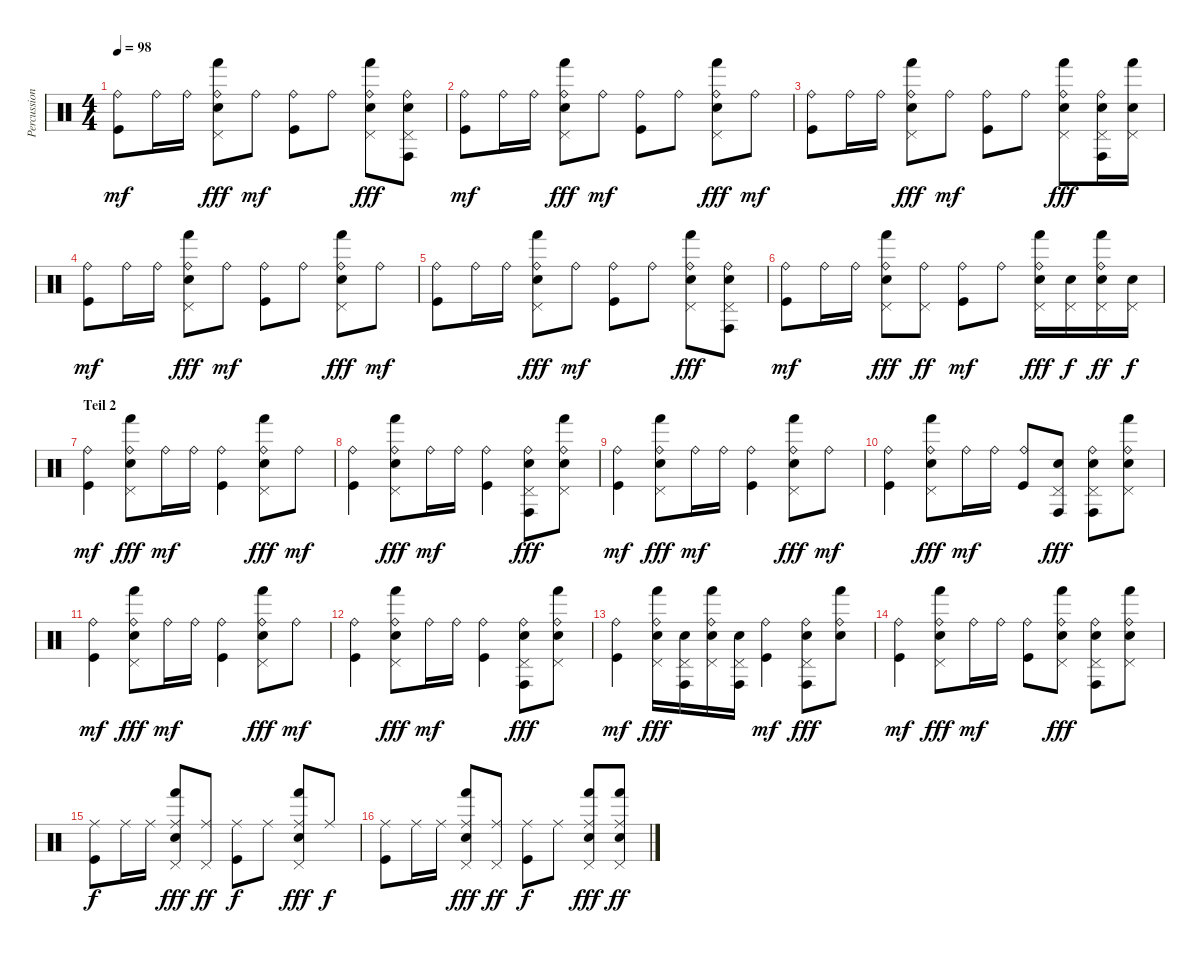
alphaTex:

\track ("Percussion" "Percussion") {instrument percussion}
\staff {score}
\articulation defaults
\ts (4 4)
\tempo 98
\clef neutral
\ks c
("Ride (bell)" "Kick (hit)").8{dy mf} "Ride (bell)".16 "Ride (bell)".16 ("Ride (bell)" "Pedal Hi-Hat (hit)" "Electric Snare (hit)" "Hand (hit)").8{dy fff} "Ride (bell)".8{dy mf} ("Ride (bell)" "Kick (hit)").8 "Ride (bell)".8 ("Ride (bell)" "Pedal Hi-Hat (hit)" "Electric Snare (hit)" "Hand (hit)").8{dy fff} ("Ride (bell)" "Pedal Hi-Hat (hit)" "Electric Snare (hit)" "Conga high (hit)").8 |
("Ride (bell)" "Kick (hit)").8{dy mf} "Ride (bell)".16 "Ride (bell)".16 ("Ride (bell)" "Pedal Hi-Hat (hit)" "Electric Snare (hit)" "Hand (hit)").8{dy fff} "Ride (bell)".8{dy mf} ("Ride (bell)" "Kick (hit)").8 "Ride (bell)".8 ("Ride (bell)" "Pedal Hi-Hat (hit)" "Electric Snare (hit)" "Hand (hit)").8{dy fff} "Ride (bell)".8{dy mf} |
("Ride (bell)" "Kick (hit)").8 "Ride (bell)".16 "Ride (bell)".16 ("Ride (bell)" "Pedal Hi-Hat (hit)" "Electric Snare (hit)" "Hand (hit)").8{dy fff} "Ride (bell)".8{dy mf} ("Ride (bell)" "Kick (hit)").8 "Ride (bell)".8 ("Ride (bell)" "Pedal Hi-Hat (hit)" "Electric Snare (hit)" "Hand (hit)").8{dy fff} ("Ride (bell)" "Pedal Hi-Hat (hit)" "Electric Snare (hit)" "Conga high (hit)").16 ("Pedal Hi-Hat (hit)" "Electric Snare (hit)" "Hand (hit)").16 |
("Ride (bell)" "Kick (hit)").8{dy mf} "Ride (bell)".16 "Ride (bell)".16 ("Ride (bell)" "Pedal Hi-Hat (hit)" "Electric Snare (hit)" "Hand (hit)").8{dy fff} "Ride (bell)".8{dy mf} ("Ride (bell)" "Kick (hit)").8 "Ride (bell)".8 ("Ride (bell)" "Pedal Hi-Hat (hit)" "Electric Snare (hit)" "Hand (hit)").8{dy fff} "Ride (bell)".8{dy mf} |
("Ride (bell)" "Kick (hit)").8 "Ride (bell)".16 "Ride (bell)".16 ("Ride (bell)" "Pedal Hi-Hat (hit)" "Electric Snare (hit)" "Hand (hit)").8{dy fff} "Ride (bell)".8{dy mf} ("Ride (bell)" "Kick (hit)").8 "Ride (bell)".8 ("Ride (bell)" "Pedal Hi-Hat (hit)" "Electric Snare (hit)" "Hand (hit)").8{dy fff} ("Ride (bell)" "Pedal Hi-Hat (hit)" "Electric Snare (hit)" "Conga high (hit)").8 |
("Ride (bell)" "Kick (hit)").8{dy mf} "Ride (bell)".16 "Ride (bell)".16 ("Ride (bell)" "Pedal Hi-Hat (hit)" "Electric Snare (hit)" "Hand (hit)").8{dy fff} ("Ride (bell)" "Pedal Hi-Hat (hit)").8{dy ff} ("Ride (bell)" "Kick (hit)").8{dy mf} "Ride (bell)".8 ("Ride (bell)" "Pedal Hi-Hat (hit)" "Electric Snare (hit)" "Hand (hit)").16{dy fff} ("Pedal Hi-Hat (hit)" "Electric Snare (hit)").16{dy f} ("Ride (bell)" "Pedal Hi-Hat (hit)" "Electric Snare (hit)" "Hand (hit)").16{dy ff} ("Pedal Hi-Hat (hit)" "Electric Snare (hit)").16{dy f} |
\section ("" "Teil 2")
("Ride (bell)" "Kick (hit)").4{dy mf} ("Ride (bell)" "Pedal Hi-Hat (hit)" "Electric Snare (hit)" "Hand (hit)").8{dy fff} "Ride (bell)".16{dy mf} "Ride (bell)".16 ("Ride (bell)" "Kick (hit)").4 ("Ride (bell)" "Pedal Hi-Hat (hit)" "Electric Snare (hit)" "Hand (hit)").8{dy fff} "Ride (bell)".8{dy mf} |
("Ride (bell)" "Kick (hit)").4 ("Ride (bell)" "Pedal Hi-Hat (hit)" "Electric Snare (hit)" "Hand (hit)").8{dy fff} "Ride (bell)".16{dy mf} "Ride (bell)".16 ("Ride (bell)" "Kick (hit)").4 ("Ride (bell)" "Pedal Hi-Hat (hit)" "Electric Snare (hit)" "Conga high (hit)").8{dy fff} ("Ride (bell)" "Pedal Hi-Hat (hit)" "Electric Snare (hit)" "Hand (hit)").8 |
("Ride (bell)" "Kick (hit)").4{dy mf} ("Ride (bell)" "Pedal Hi-Hat (hit)" "Electric Snare (hit)" "Hand (hit)").8{dy fff} "Ride (bell)".16{dy mf} "Ride (bell)".16 ("Ride (bell)" "Kick (hit)").4 ("Ride (bell)" "Pedal Hi-Hat (hit)" "Electric Snare (hit)" "Hand (hit)").8{dy fff} "Ride (bell)".8{dy mf} |
("Ride (bell)" "Kick (hit)").4 ("Ride (bell)" "Pedal Hi-Hat (hit)" "Electric Snare (hit)" "Hand (hit)").8{dy fff} "Ride (bell)".16{dy mf} "Ride (bell)".16 ("Ride (bell)" "Kick (hit)").8 ("Pedal Hi-Hat (hit)" "Electric Snare (hit)" "Conga high (hit)").8{dy fff} ("Ride (bell)" "Pedal Hi-Hat (hit)" "Electric Snare (hit)" "Conga high (hit)").8 ("Ride (bell)" "Pedal Hi-Hat (hit)" "Electric Snare (hit)" "Hand (hit)").8 |
("Ride (bell)" "Kick (hit)").4{dy mf} ("Ride (bell)" "Pedal Hi-Hat (hit)" "Electric Snare (hit)" "Hand (hit)").8{dy fff} "Ride (bell)".16{dy mf} "Ride (bell)".16 ("Ride (bell)" "Kick (hit)").4 ("Ride (bell)" "Pedal Hi-Hat (hit)" "Electric Snare (hit)" "Hand (hit)").8{dy fff} "Ride (bell)".8{dy mf} |
("Ride (bell)" "Kick (hit)").4 ("Ride (bell)" "Pedal Hi-Hat (hit)" "Electric Snare (hit)" "Hand (hit)").8{dy fff} "Ride (bell)".16{dy mf} "Ride (bell)".16 ("Ride (bell)" "Kick (hit)").4 ("Ride (bell)" "Pedal Hi-Hat (hit)" "Electric Snare (hit)" "Conga high (hit)").8{dy fff} ("Ride (bell)" "Pedal Hi-Hat (hit)" "Electric Snare (hit)" "Hand (hit)").8 |
("Ride (bell)" "Kick (hit)").4{dy mf} ("Ride (bell)" "Pedal Hi-Hat (hit)" "Electric Snare (hit)" "Hand (hit)").16{dy fff} ("Pedal Hi-Hat (hit)" "Electric Snare (hit)" "Conga high (hit)").16 ("Ride (bell)" "Pedal Hi-Hat (hit)" "Electric Snare (hit)" "Hand (hit)").16 ("Pedal Hi-Hat (hit)" "Electric Snare (hit)" "Conga high (hit)").16 ("Ride (bell)" "Kick (hit)").4{dy mf} ("Ride (bell)" "Pedal Hi-Hat (hit)" "Electric Snare (hit)" "Conga high (hit)").8{dy fff} ("Ride (bell)" "Electric Snare (hit)" "Hand (hit)").8 |
("Ride (bell)" "Kick (hit)").4{dy mf} ("Ride (bell)" "Pedal Hi-Hat (hit)" "Electric Snare (hit)" "Hand (hit)").8{dy fff} "Ride (bell)".16{dy mf} "Ride (bell)".16 ("Ride (bell)" "Kick (hit)").8 ("Ride (bell)" "Pedal Hi-Hat (hit)" "Electric Snare (hit)" "Hand (hit)").8{dy fff} ("Ride (bell)" "Pedal Hi-Hat (hit)" "Electric Snare (hit)" "Conga high (hit)").8 ("Ride (bell)" "Pedal Hi-Hat (hit)" "Electric Snare (hit)" "Hand (hit)").8 |
("Ride (middle)" "Kick (hit)").8{dy f} "Ride (middle)".16 "Ride (middle)".16 ("Ride (middle)" "Pedal Hi-Hat (hit)" "Electric Snare (hit)" "Hand (hit)").8{dy fff} ("Ride (middle)" "Pedal Hi-Hat (hit)").8{dy ff} ("Ride (middle)" "Kick (hit)").8{dy f} "Ride (middle)".8 ("Ride (middle)" "Pedal Hi-Hat (hit)" "Electric Snare (hit)" "Hand (hit)").8{dy fff} "Ride (middle)".8{dy f} |
("Ride (middle)" "Kick (hit)").8 "Ride (middle)".16 "Ride (middle)".16 ("Ride (middle)" "Pedal Hi-Hat (hit)" "Electric Snare (hit)" "Hand (hit)").8{dy fff} ("Ride (middle)" "Pedal Hi-Hat (hit)").8{dy ff} ("Ride (middle)" "Kick (hit)").8{dy f} "Ride (middle)".8 ("Ride (middle)" "Pedal Hi-Hat (hit)" "Electric Snare (hit)" "Hand (hit)").8{dy fff} ("Ride (middle)" "Pedal Hi-Hat (hit)" "Electric Snare (hit)" "Hand (hit)").8{dy ff}
